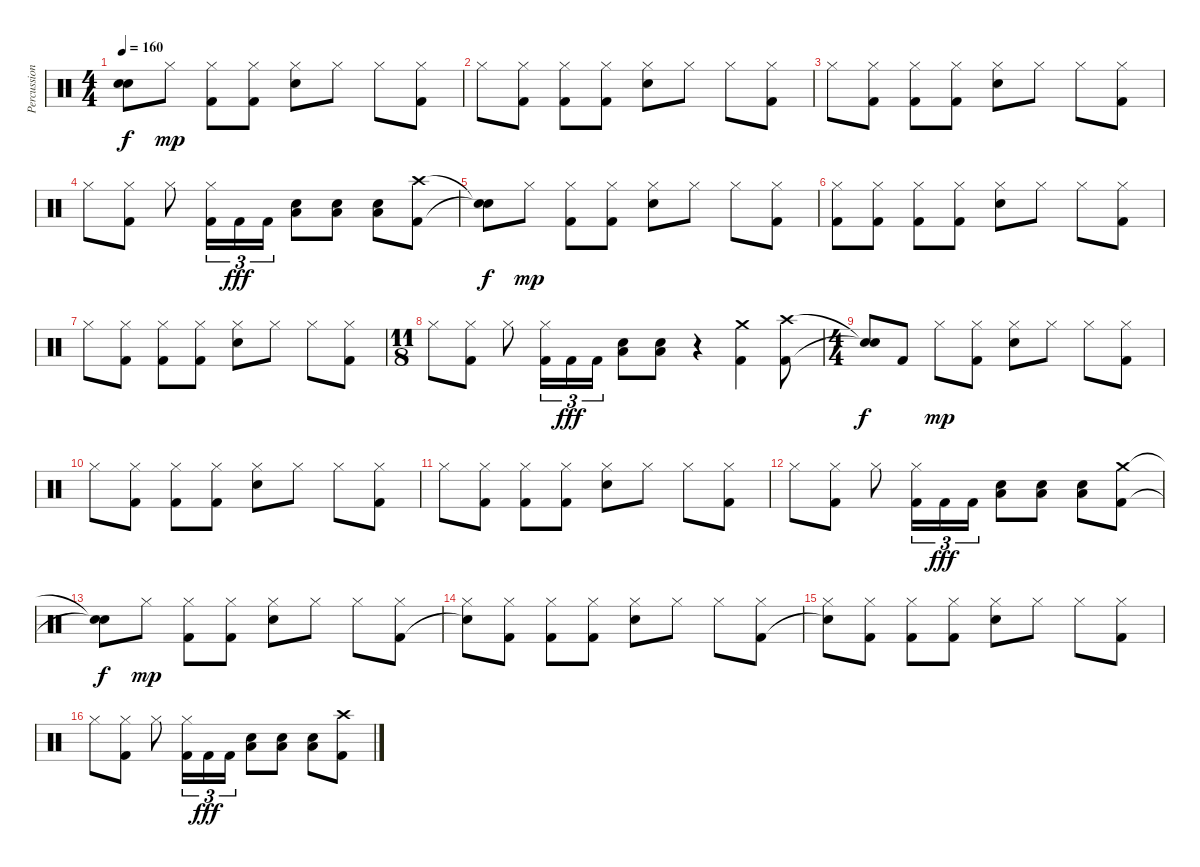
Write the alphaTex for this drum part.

\track ("Percussion" "Percussion") {instrument percussion}
\staff {score}
\articulation defaults
\ts (4 4)
\tempo 160
\clef neutral
\ks c
("Snare (hit)"{t} "Snare (hit)"{t}).8{dy f} "Hi-Hat (closed)".8{dy mp} ("Kick (hit) 2" "Hi-Hat (closed)").8 ("Kick (hit) 2" "Hi-Hat (closed)").8 ("Electric Snare (hit)" "Hi-Hat (closed)").8 "Hi-Hat (closed)".8 "Hi-Hat (closed)".8 ("Kick (hit) 2" "Hi-Hat (closed)").8 |
"Hi-Hat (closed)".8 ("Kick (hit) 2" "Hi-Hat (closed)").8 ("Kick (hit) 2" "Hi-Hat (closed)").8 ("Kick (hit) 2" "Hi-Hat (closed)").8 ("Electric Snare (hit)" "Hi-Hat (closed)").8 "Hi-Hat (closed)".8 "Hi-Hat (closed)".8 ("Kick (hit) 2" "Hi-Hat (closed)").8 |
"Hi-Hat (closed)".8 ("Kick (hit) 2" "Hi-Hat (closed)").8 ("Kick (hit) 2" "Hi-Hat (closed)").8 ("Kick (hit) 2" "Hi-Hat (closed)").8 ("Electric Snare (hit)" "Hi-Hat (closed)").8 "Hi-Hat (closed)".8 "Hi-Hat (closed)".8 ("Kick (hit) 2" "Hi-Hat (closed)").8 |
"Hi-Hat (closed)".8 ("Kick (hit) 2" "Hi-Hat (closed)").8 "Hi-Hat (closed)".8 ("Kick (hit) 2" "Hi-Hat (closed)").16{tu (3 2)} "Kick (hit) 2".16{tu (3 2) dy fff} "Kick (hit) 2".16{tu (3 2)} ("Electric Snare (hit)" "Low Tom (hit)").8 ("Electric Snare (hit)" "Low Tom (hit)").8 ("Electric Snare (hit)" "Low Tom (hit)").8 ("Kick (hit) 2" "Crash high (hit)").8 |
("Snare (hit)"{t} "Snare (hit)"{t}).8{dy f} "Hi-Hat (closed)".8{dy mp} ("Kick (hit) 2" "Hi-Hat (closed)").8 ("Kick (hit) 2" "Hi-Hat (closed)").8 ("Electric Snare (hit)" "Hi-Hat (closed)").8 "Hi-Hat (closed)".8 "Hi-Hat (closed)".8 ("Kick (hit) 2" "Hi-Hat (closed)").8 |
("Kick (hit) 2" "Hi-Hat (closed)").8 ("Kick (hit) 2" "Hi-Hat (closed)").8 ("Kick (hit) 2" "Hi-Hat (closed)").8 ("Kick (hit) 2" "Hi-Hat (closed)").8 ("Electric Snare (hit)" "Hi-Hat (closed)").8 "Hi-Hat (closed)".8 "Hi-Hat (closed)".8 ("Kick (hit) 2" "Hi-Hat (closed)").8 |
"Hi-Hat (closed)".8 ("Kick (hit) 2" "Hi-Hat (closed)").8 ("Kick (hit) 2" "Hi-Hat (closed)").8 ("Kick (hit) 2" "Hi-Hat (closed)").8 ("Electric Snare (hit)" "Hi-Hat (closed)").8 "Hi-Hat (closed)".8 "Hi-Hat (closed)".8 ("Kick (hit) 2" "Hi-Hat (closed)").8 |
\ts (11 8)
"Hi-Hat (closed)".8 ("Kick (hit) 2" "Hi-Hat (closed)").8 "Hi-Hat (closed)".8 ("Kick (hit) 2" "Hi-Hat (closed)").16{tu (3 2)} "Kick (hit) 2".16{tu (3 2) dy fff} "Kick (hit) 2".16{tu (3 2)} ("Electric Snare (hit)" "Low Tom (hit)").8 ("Electric Snare (hit)" "Low Tom (hit)").8 r.4 ("Kick (hit) 2" "Crash medium (hit)").4 ("Kick (hit) 2" "Crash high (hit)").8 |
\ts (4 4)
("Snare (hit)"{t} "Snare (hit)"{t}).8{dy f} "Kick (hit) 2".8 "Hi-Hat (closed)".8{dy mp} ("Kick (hit) 2" "Hi-Hat (closed)").8 ("Electric Snare (hit)" "Hi-Hat (closed)").8 "Hi-Hat (closed)".8 "Hi-Hat (closed)".8 ("Kick (hit) 2" "Hi-Hat (closed)").8 |
"Hi-Hat (closed)".8 ("Kick (hit) 2" "Hi-Hat (closed)").8 ("Kick (hit) 2" "Hi-Hat (closed)").8 ("Kick (hit) 2" "Hi-Hat (closed)").8 ("Electric Snare (hit)" "Hi-Hat (closed)").8 "Hi-Hat (closed)".8 "Hi-Hat (closed)".8 ("Kick (hit) 2" "Hi-Hat (closed)").8 |
"Hi-Hat (closed)".8 ("Kick (hit) 2" "Hi-Hat (closed)").8 ("Kick (hit) 2" "Hi-Hat (closed)").8 ("Kick (hit) 2" "Hi-Hat (closed)").8 ("Electric Snare (hit)" "Hi-Hat (closed)").8 "Hi-Hat (closed)".8 "Hi-Hat (closed)".8 ("Kick (hit) 2" "Hi-Hat (closed)").8 |
"Hi-Hat (closed)".8 ("Kick (hit) 2" "Hi-Hat (closed)").8 "Hi-Hat (closed)".8 ("Kick (hit) 2" "Hi-Hat (closed)").16{tu (3 2)} "Kick (hit) 2".16{tu (3 2) dy fff} "Kick (hit) 2".16{tu (3 2)} ("Electric Snare (hit)" "Low Tom (hit)").8 ("Electric Snare (hit)" "Low Tom (hit)").8 ("Electric Snare (hit)" "Low Tom (hit)").8 ("Kick (hit) 2" "Crash medium (hit)").8 |
("Snare (hit)"{t} "Snare (hit)"{t}).8{dy f} "Hi-Hat (closed)".8{dy mp} ("Kick (hit) 2" "Hi-Hat (closed)").8 ("Kick (hit) 2" "Hi-Hat (closed)").8 ("Electric Snare (hit)" "Hi-Hat (closed)").8 "Hi-Hat (closed)".8 "Hi-Hat (closed)".8 ("Kick (hit) 2" "Hi-Hat (closed)").8 |
("Snare (hit)"{t} "Hi-Hat (closed)").8 ("Kick (hit) 2" "Hi-Hat (closed)").8 ("Kick (hit) 2" "Hi-Hat (closed)").8 ("Kick (hit) 2" "Hi-Hat (closed)").8 ("Electric Snare (hit)" "Hi-Hat (closed)").8 "Hi-Hat (closed)".8 "Hi-Hat (closed)".8 ("Kick (hit) 2" "Hi-Hat (closed)").8 |
("Snare (hit)"{t} "Hi-Hat (closed)").8 ("Kick (hit) 2" "Hi-Hat (closed)").8 ("Kick (hit) 2" "Hi-Hat (closed)").8 ("Kick (hit) 2" "Hi-Hat (closed)").8 ("Electric Snare (hit)" "Hi-Hat (closed)").8 "Hi-Hat (closed)".8 "Hi-Hat (closed)".8 ("Kick (hit) 2" "Hi-Hat (closed)").8 |
"Hi-Hat (closed)".8 ("Kick (hit) 2" "Hi-Hat (closed)").8 "Hi-Hat (closed)".8 ("Kick (hit) 2" "Hi-Hat (closed)").16{tu (3 2)} "Kick (hit) 2".16{tu (3 2) dy fff} "Kick (hit) 2".16{tu (3 2)} ("Electric Snare (hit)" "Low Tom (hit)").8 ("Electric Snare (hit)" "Low Tom (hit)").8 ("Electric Snare (hit)" "Low Tom (hit)").8 ("Kick (hit) 2" "Crash high (hit)").8
